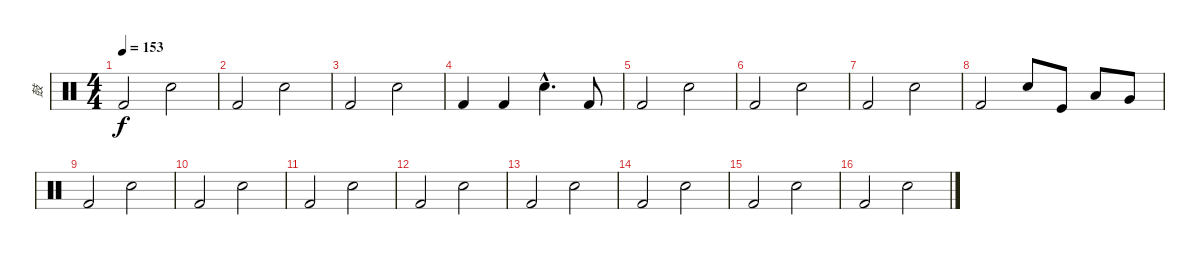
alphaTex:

\track ("鼓" "鼓") {instrument percussion}
\staff {score}
\articulation defaults
\ts (4 4)
\tempo 153
\clef neutral
\ks c "Kick (hit) 2".2{dy f} "Electric Snare (hit)".2
|
"Kick (hit) 2".2 "Electric Snare (hit)".2 |
"Kick (hit) 2".2 "Electric Snare (hit)".2 |
"Kick (hit) 2".4 "Kick (hit) 2".4 "Electric Snare (hit)"{hac}.4{d} "Kick (hit) 2".8 |
"Kick (hit) 2".2 "Electric Snare (hit)".2 |
"Kick (hit) 2".2 "Electric Snare (hit)".2 |
"Kick (hit) 2".2 "Electric Snare (hit)".2 |
"Kick (hit) 2".2 "Snare (hit) 2".8 "Kick (hit)".8 "Low Tom (hit)".8 "Very Low Tom (hit)".8 |
"Kick (hit) 2".2 "Electric Snare (hit)".2 |
"Kick (hit) 2".2 "Electric Snare (hit)".2 |
"Kick (hit) 2".2 "Electric Snare (hit)".2 |
"Kick (hit) 2".2 "Electric Snare (hit)".2 |
"Kick (hit) 2".2 "Electric Snare (hit)".2 |
"Kick (hit) 2".2 "Electric Snare (hit)".2 |
"Kick (hit) 2".2 "Electric Snare (hit)".2 |
"Kick (hit) 2".2 "Electric Snare (hit)".2
